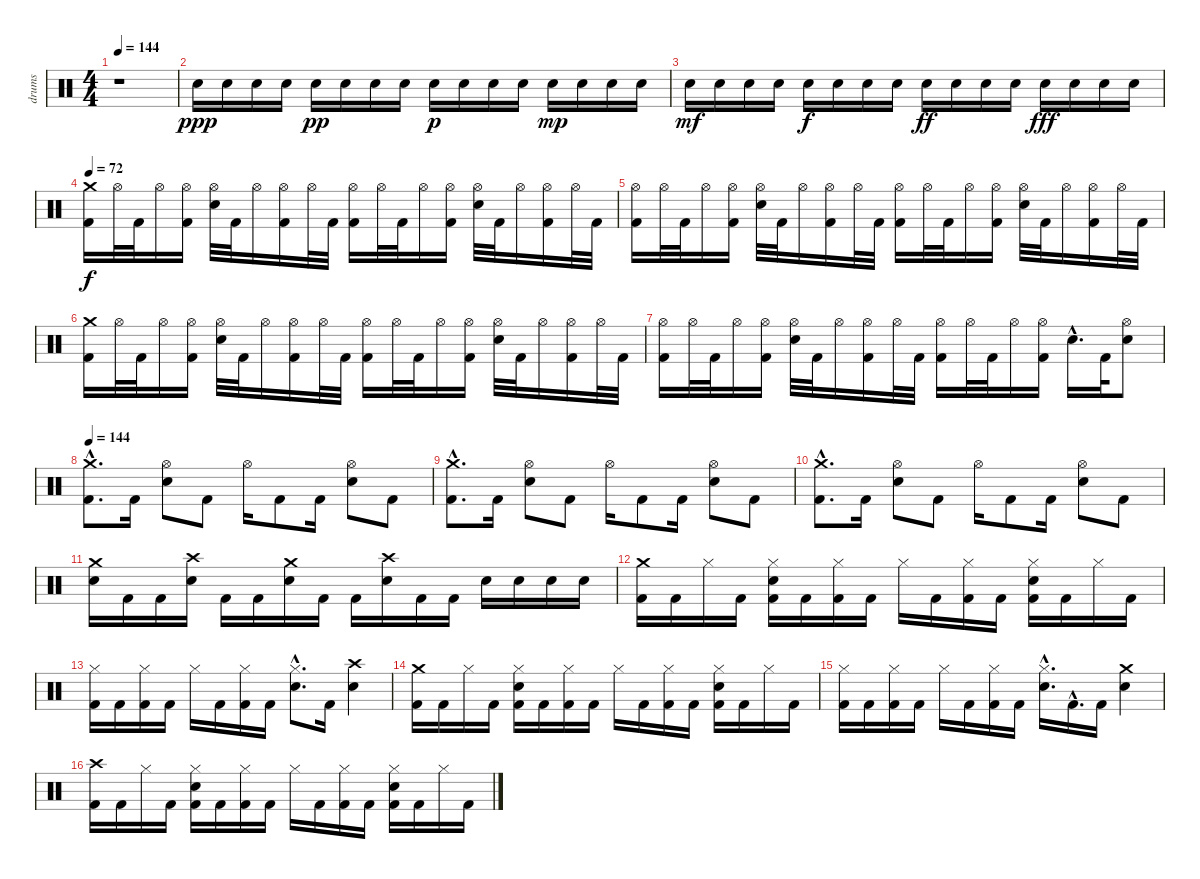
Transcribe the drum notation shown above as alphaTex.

\track ("drums" "drums") {instrument percussion}
\staff {score}
\articulation defaults
\ts (4 4)
\tempo 144
\clef neutral
\ks c
r.1{dy f} |
"Electric Snare (hit)".16{dy ppp} "Electric Snare (hit)".16 "Electric Snare (hit)".16 "Electric Snare (hit)".16 "Electric Snare (hit)".16{dy pp} "Electric Snare (hit)".16 "Electric Snare (hit)".16 "Electric Snare (hit)".16 "Electric Snare (hit)".16{dy p} "Electric Snare (hit)".16 "Electric Snare (hit)".16 "Electric Snare (hit)".16 "Electric Snare (hit)".16{dy mp} "Electric Snare (hit)".16 "Electric Snare (hit)".16 "Electric Snare (hit)".16 |
"Electric Snare (hit)".16{dy mf} "Electric Snare (hit)".16 "Electric Snare (hit)".16 "Electric Snare (hit)".16 "Electric Snare (hit)".16{dy f} "Electric Snare (hit)".16 "Electric Snare (hit)".16 "Electric Snare (hit)".16 "Electric Snare (hit)".16{dy ff} "Electric Snare (hit)".16 "Electric Snare (hit)".16 "Electric Snare (hit)".16 "Electric Snare (hit)".16{dy fff} "Electric Snare (hit)".16 "Electric Snare (hit)".16 "Electric Snare (hit)".16 |
\tempo 72
("Crash medium (hit)" "Kick (hit) 2").16{dy f} "Hi-Hat (open)".32 "Kick (hit) 2".32 "Hi-Hat (open)".16 ("Hi-Hat (open)" "Kick (hit) 2").16 ("Hi-Hat (open)" "Electric Snare (hit)").32 "Kick (hit) 2".32 "Hi-Hat (open)".16 ("Hi-Hat (open)" "Kick (hit) 2").16 "Hi-Hat (open)".32 "Kick (hit) 2".32 ("Hi-Hat (open)" "Kick (hit) 2").16 "Hi-Hat (open)".32 "Kick (hit) 2".32 "Hi-Hat (open)".16 ("Hi-Hat (open)" "Kick (hit) 2").16 ("Hi-Hat (open)" "Electric Snare (hit)").32 "Kick (hit) 2".32 "Hi-Hat (open)".16 ("Hi-Hat (open)" "Kick (hit) 2").16 "Hi-Hat (open)".32 "Kick (hit) 2".32 |
("Hi-Hat (open)" "Kick (hit) 2").16 "Hi-Hat (open)".32 "Kick (hit) 2".32 "Hi-Hat (open)".16 ("Hi-Hat (open)" "Kick (hit) 2").16 ("Hi-Hat (open)" "Electric Snare (hit)").32 "Kick (hit) 2".32 "Hi-Hat (open)".16 ("Hi-Hat (open)" "Kick (hit) 2").16 "Hi-Hat (open)".32 "Kick (hit) 2".32 ("Hi-Hat (open)" "Kick (hit) 2").16 "Hi-Hat (open)".32 "Kick (hit) 2".32 "Hi-Hat (open)".16 ("Hi-Hat (open)" "Kick (hit) 2").16 ("Hi-Hat (open)" "Electric Snare (hit)").32 "Kick (hit) 2".32 "Hi-Hat (open)".16 ("Hi-Hat (open)" "Kick (hit) 2").16 "Hi-Hat (open)".32 "Kick (hit) 2".32 |
("Crash medium (hit)" "Kick (hit) 2").16 "Hi-Hat (open)".32 "Kick (hit) 2".32 "Hi-Hat (open)".16 ("Hi-Hat (open)" "Kick (hit) 2").16 ("Hi-Hat (open)" "Electric Snare (hit)").32 "Kick (hit) 2".32 "Hi-Hat (open)".16 ("Hi-Hat (open)" "Kick (hit) 2").16 "Hi-Hat (open)".32 "Kick (hit) 2".32 ("Hi-Hat (open)" "Kick (hit) 2").16 "Hi-Hat (open)".32 "Kick (hit) 2".32 "Hi-Hat (open)".16 ("Hi-Hat (open)" "Kick (hit) 2").16 ("Hi-Hat (open)" "Electric Snare (hit)").32 "Kick (hit) 2".32 "Hi-Hat (open)".16 ("Hi-Hat (open)" "Kick (hit) 2").16 "Hi-Hat (open)".32 "Kick (hit) 2".32 |
("Hi-Hat (open)" "Kick (hit) 2").16 "Hi-Hat (open)".32 "Kick (hit) 2".32 "Hi-Hat (open)".16 ("Hi-Hat (open)" "Kick (hit) 2").16 ("Hi-Hat (open)" "Electric Snare (hit)").32 "Kick (hit) 2".32 "Hi-Hat (open)".16 ("Hi-Hat (open)" "Kick (hit) 2").16 "Hi-Hat (open)".32 "Kick (hit) 2".32 ("Hi-Hat (open)" "Kick (hit) 2").16 "Hi-Hat (open)".32 "Kick (hit) 2".32 "Hi-Hat (open)".16 ("Hi-Hat (open)" "Kick (hit) 2").16 "Electric Snare (hit)"{hac}.16{d} "Kick (hit) 2".32 ("Hi-Hat (open)" "Electric Snare (hit)").8 |
\tempo 144
("Crash medium (hit)"{hac} "Kick (hit) 2"{hac}).8{d} "Kick (hit) 2".16 ("Hi-Hat (open)" "Electric Snare (hit)").8 "Kick (hit) 2".8 "Hi-Hat (open)".16 "Kick (hit) 2".8 "Kick (hit) 2".16 ("Hi-Hat (open)" "Electric Snare (hit)").8 "Kick (hit) 2".8 |
("Crash medium (hit)"{hac} "Kick (hit) 2"{hac}).8{d} "Kick (hit) 2".16 ("Hi-Hat (open)" "Electric Snare (hit)").8 "Kick (hit) 2".8 "Hi-Hat (open)".16 "Kick (hit) 2".8 "Kick (hit) 2".16 ("Hi-Hat (open)" "Electric Snare (hit)").8 "Kick (hit) 2".8 |
("Crash medium (hit)"{hac} "Kick (hit) 2"{hac}).8{d} "Kick (hit) 2".16 ("Hi-Hat (open)" "Electric Snare (hit)").8 "Kick (hit) 2".8 "Hi-Hat (open)".16 "Kick (hit) 2".8 "Kick (hit) 2".16 ("Hi-Hat (open)" "Electric Snare (hit)").8 "Kick (hit) 2".8 |
("Crash medium (hit)" "Electric Snare (hit)").16 "Kick (hit) 2".16 "Kick (hit) 2".16 ("Crash high (hit)" "Electric Snare (hit)").16 "Kick (hit) 2".16 "Kick (hit) 2".16 ("Crash medium (hit)" "Electric Snare (hit)").16 "Kick (hit) 2".16 "Kick (hit) 2".16 ("Crash high (hit)" "Electric Snare (hit)").16 "Kick (hit) 2".16 "Kick (hit) 2".16 "Electric Snare (hit)".16 "Electric Snare (hit)".16 "Electric Snare (hit)".16 "Electric Snare (hit)".16 |
("Crash medium (hit)" "Kick (hit) 2").16 "Kick (hit) 2".16 "Hi-Hat (closed)".16 "Kick (hit) 2".16 ("Hi-Hat (closed)" "Electric Snare (hit)" "Kick (hit) 2").16 "Kick (hit) 2".16 ("Hi-Hat (closed)" "Kick (hit) 2").16 "Kick (hit) 2".16 "Hi-Hat (closed)".16 "Kick (hit) 2".16 ("Hi-Hat (closed)" "Kick (hit) 2").16 "Kick (hit) 2".16 ("Hi-Hat (closed)" "Electric Snare (hit)" "Kick (hit) 2").16 "Kick (hit) 2".16 "Hi-Hat (closed)".16 "Kick (hit) 2".16 |
("Hi-Hat (closed)" "Kick (hit) 2").16 "Kick (hit) 2".16 ("Hi-Hat (closed)" "Kick (hit) 2").16 "Kick (hit) 2".16 "Hi-Hat (closed)".16 "Kick (hit) 2".16 ("Hi-Hat (closed)" "Kick (hit) 2").16 "Kick (hit) 2".16 ("Hi-Hat (closed)"{hac} "Electric Snare (hit)"{hac}).8{d} "Kick (hit) 2".16 ("Crash high (hit)" "Electric Snare (hit)").4 |
("Crash medium (hit)" "Kick (hit) 2").16 "Kick (hit) 2".16 "Hi-Hat (closed)".16 "Kick (hit) 2".16 ("Hi-Hat (closed)" "Electric Snare (hit)" "Kick (hit) 2").16 "Kick (hit) 2".16 ("Hi-Hat (closed)" "Kick (hit) 2").16 "Kick (hit) 2".16 "Hi-Hat (closed)".16 "Kick (hit) 2".16 ("Hi-Hat (closed)" "Kick (hit) 2").16 "Kick (hit) 2".16 ("Hi-Hat (closed)" "Electric Snare (hit)" "Kick (hit) 2").16 "Kick (hit) 2".16 "Hi-Hat (closed)".16 "Kick (hit) 2".16 |
("Hi-Hat (closed)" "Kick (hit) 2").16 "Kick (hit) 2".16 ("Hi-Hat (closed)" "Kick (hit) 2").16 "Kick (hit) 2".16 "Hi-Hat (closed)".16 "Kick (hit) 2".16 ("Hi-Hat (closed)" "Kick (hit) 2").16 "Kick (hit) 2".16 ("Hi-Hat (closed)"{hac} "Electric Snare (hit)"{hac}).16{d} "Kick (hit) 2"{hac}.16{d} "Kick (hit) 2".16 ("Crash medium (hit)" "Electric Snare (hit)").4 |
("Crash high (hit)" "Kick (hit) 2").16 "Kick (hit) 2".16 "Hi-Hat (closed)".16 "Kick (hit) 2".16 ("Hi-Hat (closed)" "Electric Snare (hit)" "Kick (hit) 2").16 "Kick (hit) 2".16 ("Hi-Hat (closed)" "Kick (hit) 2").16 "Kick (hit) 2".16 "Hi-Hat (closed)".16 "Kick (hit) 2".16 ("Hi-Hat (closed)" "Kick (hit) 2").16 "Kick (hit) 2".16 ("Hi-Hat (closed)" "Electric Snare (hit)" "Kick (hit) 2").16 "Kick (hit) 2".16 "Hi-Hat (closed)".16 "Kick (hit) 2".16
